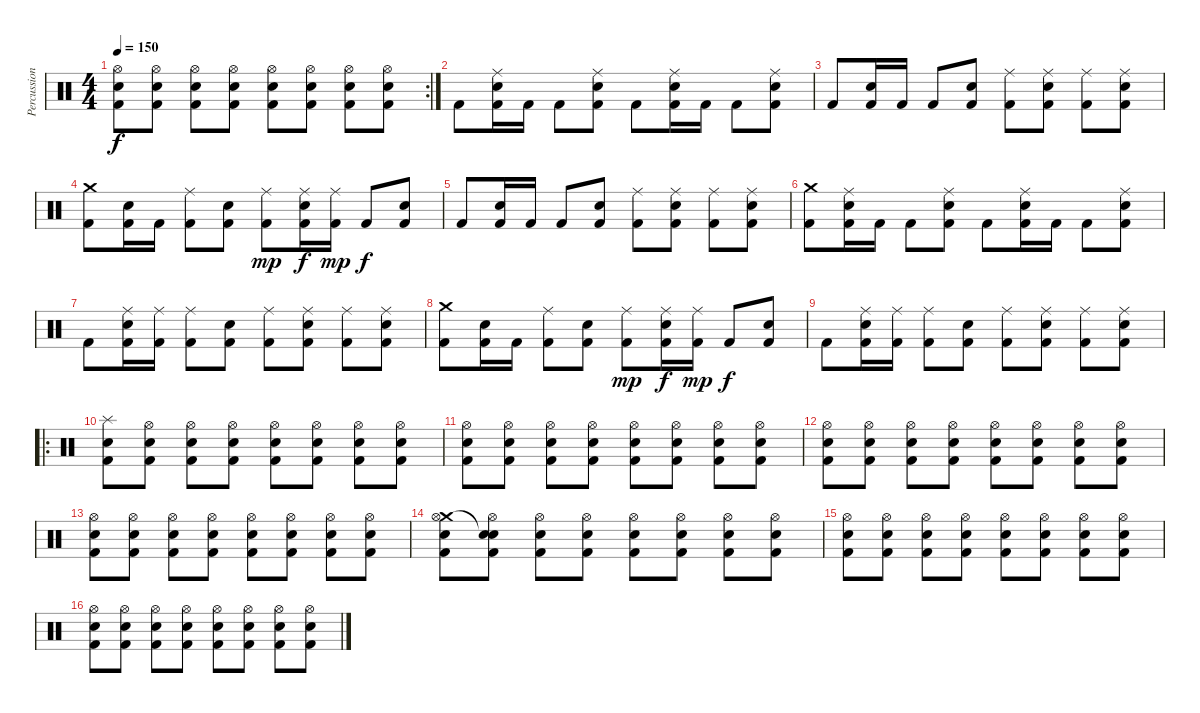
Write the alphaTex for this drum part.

\track ("Percussions" "Percussion") {instrument percussion}
\staff {score}
\articulation defaults
\rc 2
\ts (4 4)
\tempo 150
\clef neutral
\ks c
("Hi-Hat (open)" "Snare (hit) 2" "Kick (hit) 2").8{dy f} ("Hi-Hat (open)" "Snare (hit) 2" "Kick (hit) 2").8 ("Hi-Hat (open)" "Snare (hit) 2" "Kick (hit) 2").8 ("Hi-Hat (open)" "Snare (hit) 2" "Kick (hit) 2").8 ("Hi-Hat (open)" "Snare (hit) 2" "Kick (hit) 2").8 ("Hi-Hat (open)" "Snare (hit) 2" "Kick (hit) 2").8 ("Hi-Hat (open)" "Snare (hit) 2" "Kick (hit) 2").8 ("Hi-Hat (open)" "Snare (hit) 2" "Kick (hit) 2").8 |
"Kick (hit) 2".8 ("Ride (middle)" "Snare (hit) 2" "Kick (hit) 2").16 "Kick (hit) 2".16 "Kick (hit) 2".8 ("Ride (middle)" "Snare (hit) 2" "Kick (hit) 2").8 "Kick (hit) 2".8 ("Ride (middle)" "Snare (hit) 2" "Kick (hit) 2").16 "Kick (hit) 2".16 "Kick (hit) 2".8 ("Ride (middle)" "Snare (hit) 2" "Kick (hit) 2").8 |
"Kick (hit) 2".8 ("Snare (hit) 2" "Kick (hit) 2").16 "Kick (hit) 2".16 "Kick (hit) 2".8 ("Snare (hit) 2" "Kick (hit) 2").8 ("Ride (middle)" "Kick (hit) 2").8 ("Ride (middle)" "Snare (hit) 2" "Kick (hit) 2").8 ("Ride (middle)" "Kick (hit) 2").8 ("Ride (middle)" "Snare (hit) 2" "Kick (hit) 2").8 |
("Crash medium (hit)" "Kick (hit) 2").8 ("Snare (hit) 2" "Kick (hit) 2").16 "Kick (hit) 2".16 ("Ride (middle)" "Kick (hit) 2").8 ("Snare (hit) 2" "Kick (hit) 2").8 ("Ride (middle)" "Kick (hit) 2").8{dy mp} ("Ride (middle)" "Snare (hit) 2" "Kick (hit) 2").16{dy f} ("Ride (middle)" "Kick (hit) 2").16{dy mp} "Kick (hit) 2".8{dy f} ("Snare (hit) 2" "Kick (hit) 2").8 |
"Kick (hit) 2".8 ("Snare (hit) 2" "Kick (hit) 2").16 "Kick (hit) 2".16 "Kick (hit) 2".8 ("Snare (hit) 2" "Kick (hit) 2").8 ("Ride (middle)" "Kick (hit) 2").8 ("Ride (middle)" "Snare (hit) 2" "Kick (hit) 2").8 ("Ride (middle)" "Kick (hit) 2").8 ("Ride (middle)" "Snare (hit) 2" "Kick (hit) 2").8 |
("Crash medium (hit)" "Kick (hit) 2").8 ("Ride (middle)" "Snare (hit) 2" "Kick (hit) 2").16 "Kick (hit) 2".16 "Kick (hit) 2".8 ("Ride (middle)" "Snare (hit) 2" "Kick (hit) 2").8 "Kick (hit) 2".8 ("Ride (middle)" "Snare (hit) 2" "Kick (hit) 2").16 "Kick (hit) 2".16 "Kick (hit) 2".8 ("Ride (middle)" "Snare (hit) 2" "Kick (hit) 2").8 |
"Kick (hit) 2".8 ("Ride (middle)" "Snare (hit) 2" "Kick (hit) 2").16 ("Ride (middle)" "Kick (hit) 2").16 ("Ride (middle)" "Kick (hit) 2").8 ("Snare (hit) 2" "Kick (hit) 2").8 ("Ride (middle)" "Kick (hit) 2").8 ("Ride (middle)" "Snare (hit) 2" "Kick (hit) 2").8 ("Ride (middle)" "Kick (hit) 2").8 ("Ride (middle)" "Snare (hit) 2" "Kick (hit) 2").8 |
("Crash medium (hit)" "Kick (hit) 2").8 ("Snare (hit) 2" "Kick (hit) 2").16 "Kick (hit) 2".16 ("Ride (middle)" "Kick (hit) 2").8 ("Snare (hit) 2" "Kick (hit) 2").8 ("Ride (middle)" "Kick (hit) 2").8{dy mp} ("Ride (middle)" "Snare (hit) 2" "Kick (hit) 2").16{dy f} ("Ride (middle)" "Kick (hit) 2").16{dy mp} "Kick (hit) 2".8{dy f} ("Snare (hit) 2" "Kick (hit) 2").8 |
"Kick (hit) 2".8 ("Ride (middle)" "Snare (hit) 2" "Kick (hit) 2").16 ("Ride (middle)" "Kick (hit) 2").16 ("Ride (middle)" "Kick (hit) 2").8 ("Snare (hit) 2" "Kick (hit) 2").8 ("Ride (middle)" "Kick (hit) 2").8 ("Ride (middle)" "Snare (hit) 2" "Kick (hit) 2").8 ("Ride (middle)" "Kick (hit) 2").8 ("Ride (middle)" "Snare (hit) 2" "Kick (hit) 2").8 |
\ro
("Splash (hit)" "Snare (hit) 2" "Kick (hit) 2").8 ("Hi-Hat (open)" "Snare (hit) 2" "Kick (hit) 2").8 ("Hi-Hat (open)" "Snare (hit) 2" "Kick (hit) 2").8 ("Hi-Hat (open)" "Snare (hit) 2" "Kick (hit) 2").8 ("Hi-Hat (open)" "Snare (hit) 2" "Kick (hit) 2").8 ("Hi-Hat (open)" "Snare (hit) 2" "Kick (hit) 2").8 ("Hi-Hat (open)" "Snare (hit) 2" "Kick (hit) 2").8 ("Hi-Hat (open)" "Snare (hit) 2" "Kick (hit) 2").8 |
("Hi-Hat (open)" "Snare (hit) 2" "Kick (hit) 2").8 ("Hi-Hat (open)" "Snare (hit) 2" "Kick (hit) 2").8 ("Hi-Hat (open)" "Snare (hit) 2" "Kick (hit) 2").8 ("Hi-Hat (open)" "Snare (hit) 2" "Kick (hit) 2").8 ("Hi-Hat (open)" "Snare (hit) 2" "Kick (hit) 2").8 ("Hi-Hat (open)" "Snare (hit) 2" "Kick (hit) 2").8 ("Hi-Hat (open)" "Snare (hit) 2" "Kick (hit) 2").8 ("Hi-Hat (open)" "Snare (hit) 2" "Kick (hit) 2").8 |
("Hi-Hat (open)" "Snare (hit) 2" "Kick (hit) 2").8 ("Hi-Hat (open)" "Snare (hit) 2" "Kick (hit) 2").8 ("Hi-Hat (open)" "Snare (hit) 2" "Kick (hit) 2").8 ("Hi-Hat (open)" "Snare (hit) 2" "Kick (hit) 2").8 ("Hi-Hat (open)" "Snare (hit) 2" "Kick (hit) 2").8 ("Hi-Hat (open)" "Snare (hit) 2" "Kick (hit) 2").8 ("Hi-Hat (open)" "Snare (hit) 2" "Kick (hit) 2").8 ("Hi-Hat (open)" "Snare (hit) 2" "Kick (hit) 2").8 |
("Hi-Hat (open)" "Snare (hit) 2" "Kick (hit) 2").8 ("Hi-Hat (open)" "Snare (hit) 2" "Kick (hit) 2").8 ("Hi-Hat (open)" "Snare (hit) 2" "Kick (hit) 2").8 ("Hi-Hat (open)" "Snare (hit) 2" "Kick (hit) 2").8 ("Hi-Hat (open)" "Snare (hit) 2" "Kick (hit) 2").8 ("Hi-Hat (open)" "Snare (hit) 2" "Kick (hit) 2").8 ("Hi-Hat (open)" "Snare (hit) 2" "Kick (hit) 2").8 ("Hi-Hat (open)" "Snare (hit) 2" "Kick (hit) 2").8 |
("Crash medium (hit)" "Hi-Hat (open)" "Snare (hit) 2" "Kick (hit) 2").8 ("Snare (hit)"{t} "Hi-Hat (open)" "Snare (hit) 2" "Kick (hit) 2").8 ("Hi-Hat (open)" "Snare (hit) 2" "Kick (hit) 2").8 ("Hi-Hat (open)" "Snare (hit) 2" "Kick (hit) 2").8 ("Hi-Hat (open)" "Snare (hit) 2" "Kick (hit) 2").8 ("Hi-Hat (open)" "Snare (hit) 2" "Kick (hit) 2").8 ("Hi-Hat (open)" "Snare (hit) 2" "Kick (hit) 2").8 ("Hi-Hat (open)" "Snare (hit) 2" "Kick (hit) 2").8 |
("Hi-Hat (open)" "Snare (hit) 2" "Kick (hit) 2").8 ("Hi-Hat (open)" "Snare (hit) 2" "Kick (hit) 2").8 ("Hi-Hat (open)" "Snare (hit) 2" "Kick (hit) 2").8 ("Hi-Hat (open)" "Snare (hit) 2" "Kick (hit) 2").8 ("Hi-Hat (open)" "Snare (hit) 2" "Kick (hit) 2").8 ("Hi-Hat (open)" "Snare (hit) 2" "Kick (hit) 2").8 ("Hi-Hat (open)" "Snare (hit) 2" "Kick (hit) 2").8 ("Hi-Hat (open)" "Snare (hit) 2" "Kick (hit) 2").8 |
("Hi-Hat (open)" "Snare (hit) 2" "Kick (hit) 2").8 ("Hi-Hat (open)" "Snare (hit) 2" "Kick (hit) 2").8 ("Hi-Hat (open)" "Snare (hit) 2" "Kick (hit) 2").8 ("Hi-Hat (open)" "Snare (hit) 2" "Kick (hit) 2").8 ("Hi-Hat (open)" "Snare (hit) 2" "Kick (hit) 2").8 ("Hi-Hat (open)" "Snare (hit) 2" "Kick (hit) 2").8 ("Hi-Hat (open)" "Snare (hit) 2" "Kick (hit) 2").8 ("Hi-Hat (open)" "Snare (hit) 2" "Kick (hit) 2").8
